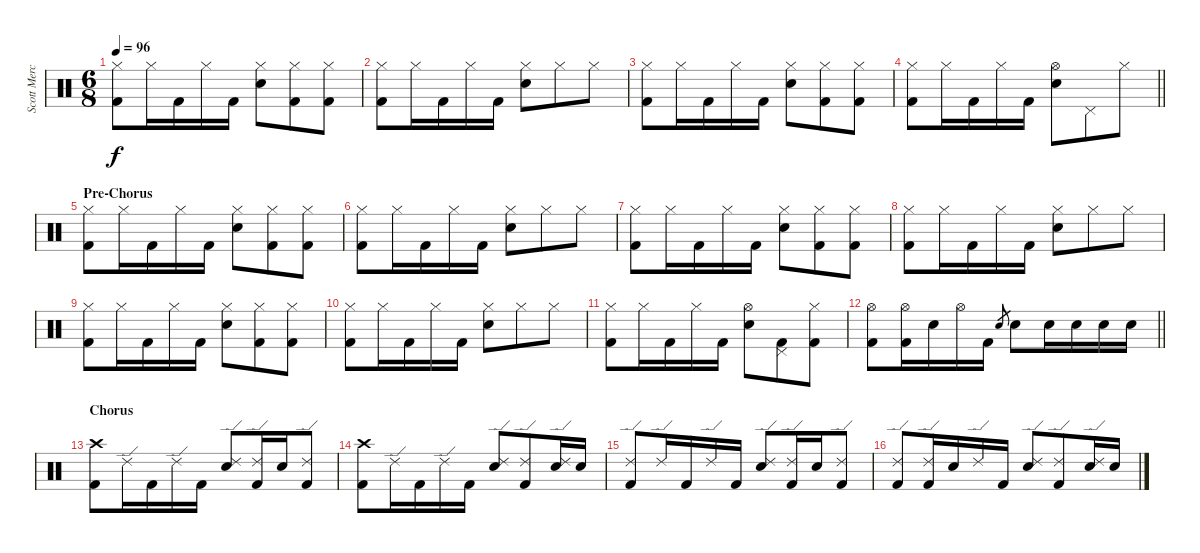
\track ("Scott Mercado Drums" "Scott Merc") {instrument percussion}
\staff {score}
\articulation defaults
\ts (6 8)
\tempo 96
\clef neutral
\ks c
("Hi-Hat (closed)" "Kick (hit) 2").8{dy f} "Hi-Hat (closed)".16 "Kick (hit) 2".16 "Hi-Hat (closed)".16 "Kick (hit) 2".16 ("Hi-Hat (closed)" "Electric Snare (hit)").8 ("Hi-Hat (closed)" "Kick (hit) 2").8 ("Hi-Hat (closed)" "Kick (hit) 2").8 |
("Hi-Hat (closed)" "Kick (hit) 2").8 "Hi-Hat (closed)".16 "Kick (hit) 2".16 "Hi-Hat (closed)".16 "Kick (hit) 2".16 ("Hi-Hat (closed)" "Electric Snare (hit)").8 "Hi-Hat (closed)".8 "Hi-Hat (closed)".8 |
("Hi-Hat (closed)" "Kick (hit) 2").8 "Hi-Hat (closed)".16 "Kick (hit) 2".16 "Hi-Hat (closed)".16 "Kick (hit) 2".16 ("Hi-Hat (closed)" "Electric Snare (hit)").8 ("Hi-Hat (closed)" "Kick (hit) 2").8 ("Hi-Hat (closed)" "Kick (hit) 2").8 |
\barLineRight lightlight
("Hi-Hat (closed)" "Kick (hit) 2").8 "Hi-Hat (closed)".16 "Kick (hit) 2".16 "Hi-Hat (closed)".16 "Kick (hit) 2".16 ("Hi-Hat (open)" "Electric Snare (hit)").8 "Pedal Hi-Hat (hit)".8 "Hi-Hat (closed)".8 |
\section ("" "Pre-Chorus")
("Hi-Hat (closed)" "Kick (hit) 2").8 "Hi-Hat (closed)".16 "Kick (hit) 2".16 "Hi-Hat (closed)".16 "Kick (hit) 2".16 ("Hi-Hat (closed)" "Electric Snare (hit)").8 ("Hi-Hat (closed)" "Kick (hit) 2").8 ("Hi-Hat (closed)" "Kick (hit) 2").8 |
("Hi-Hat (closed)" "Kick (hit) 2").8 "Hi-Hat (closed)".16 "Kick (hit) 2".16 "Hi-Hat (closed)".16 "Kick (hit) 2".16 ("Hi-Hat (closed)" "Electric Snare (hit)").8 "Hi-Hat (closed)".8 "Hi-Hat (closed)".8 |
("Hi-Hat (closed)" "Kick (hit) 2").8 "Hi-Hat (closed)".16 "Kick (hit) 2".16 "Hi-Hat (closed)".16 "Kick (hit) 2".16 ("Hi-Hat (closed)" "Electric Snare (hit)").8 ("Hi-Hat (closed)" "Kick (hit) 2").8 ("Hi-Hat (closed)" "Kick (hit) 2").8 |
("Hi-Hat (closed)" "Kick (hit) 2").8 "Hi-Hat (closed)".16 "Kick (hit) 2".16 "Hi-Hat (closed)".16 "Kick (hit) 2".16 ("Hi-Hat (closed)" "Electric Snare (hit)").8 "Hi-Hat (closed)".8 "Hi-Hat (closed)".8 |
("Hi-Hat (closed)" "Kick (hit) 2").8 "Hi-Hat (closed)".16 "Kick (hit) 2".16 "Hi-Hat (closed)".16 "Kick (hit) 2".16 ("Hi-Hat (closed)" "Electric Snare (hit)").8 ("Hi-Hat (closed)" "Kick (hit) 2").8 ("Hi-Hat (closed)" "Kick (hit) 2").8 |
("Hi-Hat (closed)" "Kick (hit) 2").8 "Hi-Hat (closed)".16 "Kick (hit) 2".16 "Hi-Hat (closed)".16 "Kick (hit) 2".16 ("Hi-Hat (closed)" "Electric Snare (hit)").8 "Hi-Hat (closed)".8 "Hi-Hat (closed)".8 |
("Hi-Hat (closed)" "Kick (hit) 2").8 "Hi-Hat (closed)".16 "Kick (hit) 2".16 "Hi-Hat (closed)".16 "Kick (hit) 2".16 ("Hi-Hat (open)" "Electric Snare (hit)").8 ("Pedal Hi-Hat (hit)" "Kick (hit) 2").8 ("Hi-Hat (closed)" "Kick (hit) 2").8 |
\barLineRight lightlight
("Hi-Hat (open)" "Kick (hit) 2").8 ("Hi-Hat (open)" "Kick (hit) 2").16 "Electric Snare (hit)".16 "Hi-Hat (open)".16 "Kick (hit) 2".16 "Electric Snare (hit)".8{gr} "Electric Snare (hit)".8 "Electric Snare (hit)".16 "Electric Snare (hit)".16 "Electric Snare (hit)".16 "Electric Snare (hit)".16 |
\section ("" "Chorus")
("Crash high (hit)" "Kick (hit) 2").8 "Ride (edge) 2".16 "Kick (hit) 2".16 "Ride (edge) 2".16 "Kick (hit) 2".16 ("Ride (edge) 2" "Electric Snare (hit)").8 ("Ride (edge) 2" "Kick (hit) 2").16 "Electric Snare (hit)".16 ("Ride (edge) 2" "Kick (hit) 2").8 |
("Crash high (hit)" "Kick (hit) 2").8 "Ride (edge) 2".16 "Kick (hit) 2".16 "Ride (edge) 2".16 "Kick (hit) 2".16 ("Ride (edge) 2" "Electric Snare (hit)").8 ("Ride (edge) 2" "Kick (hit) 2").8 ("Ride (edge) 2" "Electric Snare (hit)").16 "Electric Snare (hit)".16 |
("Ride (edge) 2" "Kick (hit) 2").8 "Ride (edge) 2".16 "Kick (hit) 2".16 "Ride (edge) 2".16 "Kick (hit) 2".16 ("Ride (edge) 2" "Electric Snare (hit)").8 ("Ride (edge) 2" "Kick (hit) 2").16 "Electric Snare (hit)".16 ("Ride (edge) 2" "Kick (hit) 2").8 |
("Ride (edge) 2" "Kick (hit) 2").8 ("Ride (edge) 2" "Kick (hit) 2").16 "Electric Snare (hit)".16 "Ride (edge) 2".16 "Kick (hit) 2".16 ("Ride (edge) 2" "Electric Snare (hit)").8 ("Ride (edge) 2" "Kick (hit) 2").8 ("Ride (edge) 2" "Electric Snare (hit)").16 "Electric Snare (hit)".16
